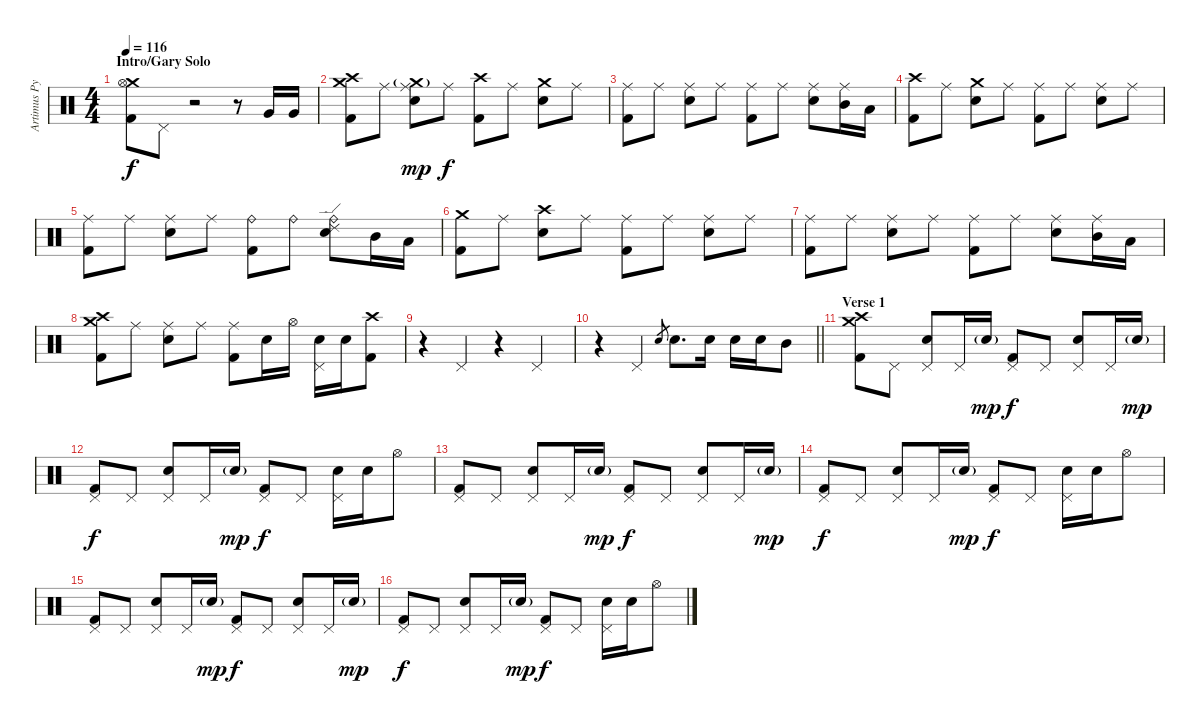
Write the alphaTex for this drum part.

\track ("Artimus Pyle - Drums and Percussion" "Artimus Py") {instrument percussion}
\staff {score}
\articulation defaults
\ts (4 4)
\section ("" "Intro/Gary Solo")
\tempo 116
\clef neutral
\ks c
("Crash medium (hit)" "Hi-Hat (open)" "Kick (hit) 2").8{dy f} "Pedal Hi-Hat (hit)".8 r.2 r.8 "Very Low Tom (hit)".16 "Very Low Tom (hit)".16 |
("Crash medium (hit)" "Crash high (hit)" "Kick (hit) 2").8 "Ride (middle)".8 ("Ride (middle)" "Crash medium (hit)"{g} "Snare (hit) 2").8{dy mp} "Ride (middle)".8{dy f} ("Crash high (hit)" "Kick (hit) 2").8 "Ride (middle)".8 ("Crash medium (hit)" "Snare (hit) 2").8 "Ride (middle)".8 |
("Ride (middle)" "Kick (hit) 2").8 "Ride (middle)".8 ("Ride (middle)" "Snare (hit) 2").8 "Ride (middle)".8 ("Ride (middle)" "Kick (hit) 2").8 "Ride (middle)".8 ("Ride (middle)" "Snare (hit) 2").8 ("Ride (middle)" "Mid Tom (hit)").16 "Low Floor Tom (hit)".16 |
("Crash high (hit)" "Kick (hit) 2").8 "Ride (middle)".8 ("Crash medium (hit)" "Snare (hit) 2").8 "Ride (middle)".8 ("Ride (middle)" "Kick (hit) 2").8 "Ride (middle)".8 ("Ride (middle)" "Snare (hit) 2").8 "Ride (middle)".8 |
("Ride (middle)" "Kick (hit) 2").8 "Ride (middle)".8 ("Ride (middle)" "Snare (hit) 2").8 "Ride (middle)".8 ("Ride (bell)" "Kick (hit) 2").8 "Ride (bell)".8 ("Ride (bell)" "Ride (edge) 2" "Snare (hit) 2").8 "Mid Tom (hit)".16 "Low Floor Tom (hit)".16 |
("Crash medium (hit)" "Kick (hit) 2").8 "Ride (middle)".8 ("Crash high (hit)" "Snare (hit) 2").8 "Ride (middle)".8 ("Ride (middle)" "Kick (hit) 2").8 "Ride (middle)".8 ("Ride (middle)" "Snare (hit) 2").8 "Ride (middle)".8 |
("Ride (middle)" "Kick (hit) 2").8 "Ride (middle)".8 ("Ride (middle)" "Snare (hit) 2").8 "Ride (middle)".8 ("Ride (middle)" "Kick (hit) 2").8 "Ride (middle)".8 ("Ride (middle)" "Snare (hit) 2").8 ("Ride (middle)" "Mid Tom (hit)").16 "Low Floor Tom (hit)".16 |
("Crash medium (hit)" "Crash high (hit)" "Kick (hit) 2").8 "Ride (middle)".8 ("Ride (middle)" "Snare (hit) 2").8 "Ride (middle)".8 ("Ride (middle)" "Kick (hit) 2").8 "Snare (hit) 2".16 "Hi-Hat (open)".16 ("Pedal Hi-Hat (hit)" "Snare (hit) 2").16 "Snare (hit) 2".16 ("Crash high (hit)" "Kick (hit) 2").8 |
r.4 "Pedal Hi-Hat (hit)".4 r.4 "Pedal Hi-Hat (hit)".4 |
\barLineRight lightlight
r.4 "Pedal Hi-Hat (hit)".4 "Snare (hit) 2".8{gr} "Snare (hit) 2".8{d} "Snare (hit) 2".16 "Snare (hit) 2".16 "Snare (hit) 2".16 "Mid Tom (hit)".8 |
\section ("" "Verse 1")
("Crash medium (hit)" "Crash high (hit)" "Kick (hit) 2").8 "Pedal Hi-Hat (hit)".8 ("Snare (hit) 2" "Pedal Hi-Hat (hit)").8 "Pedal Hi-Hat (hit)".16 "Snare (hit) 2"{g}.16{dy mp} ("Pedal Hi-Hat (hit)" "Kick (hit) 2").8{dy f} "Pedal Hi-Hat (hit)".8 ("Snare (hit) 2" "Pedal Hi-Hat (hit)").8 "Pedal Hi-Hat (hit)".16 "Snare (hit) 2"{g}.16{dy mp} |
("Pedal Hi-Hat (hit)" "Kick (hit) 2").8{dy f} "Pedal Hi-Hat (hit)".8 ("Snare (hit) 2" "Pedal Hi-Hat (hit)").8 "Pedal Hi-Hat (hit)".16 "Snare (hit) 2"{g}.16{dy mp} ("Pedal Hi-Hat (hit)" "Kick (hit) 2").8{dy f} "Pedal Hi-Hat (hit)".8 ("Snare (hit) 2" "Pedal Hi-Hat (hit)").16 "Snare (hit) 2".16 "Hi-Hat (open)".8 |
("Pedal Hi-Hat (hit)" "Kick (hit) 2").8 "Pedal Hi-Hat (hit)".8 ("Snare (hit) 2" "Pedal Hi-Hat (hit)").8 "Pedal Hi-Hat (hit)".16 "Snare (hit) 2"{g}.16{dy mp} ("Pedal Hi-Hat (hit)" "Kick (hit) 2").8{dy f} "Pedal Hi-Hat (hit)".8 ("Snare (hit) 2" "Pedal Hi-Hat (hit)").8 "Pedal Hi-Hat (hit)".16 "Snare (hit) 2"{g}.16{dy mp} |
("Pedal Hi-Hat (hit)" "Kick (hit) 2").8{dy f} "Pedal Hi-Hat (hit)".8 ("Snare (hit) 2" "Pedal Hi-Hat (hit)").8 "Pedal Hi-Hat (hit)".16 "Snare (hit) 2"{g}.16{dy mp} ("Pedal Hi-Hat (hit)" "Kick (hit) 2").8{dy f} "Pedal Hi-Hat (hit)".8 ("Snare (hit) 2" "Pedal Hi-Hat (hit)").16 "Snare (hit) 2".16 "Hi-Hat (open)".8 |
("Pedal Hi-Hat (hit)" "Kick (hit) 2").8 "Pedal Hi-Hat (hit)".8 ("Snare (hit) 2" "Pedal Hi-Hat (hit)").8 "Pedal Hi-Hat (hit)".16 "Snare (hit) 2"{g}.16{dy mp} ("Pedal Hi-Hat (hit)" "Kick (hit) 2").8{dy f} "Pedal Hi-Hat (hit)".8 ("Snare (hit) 2" "Pedal Hi-Hat (hit)").8 "Pedal Hi-Hat (hit)".16 "Snare (hit) 2"{g}.16{dy mp} |
("Pedal Hi-Hat (hit)" "Kick (hit) 2").8{dy f} "Pedal Hi-Hat (hit)".8 ("Snare (hit) 2" "Pedal Hi-Hat (hit)").8 "Pedal Hi-Hat (hit)".16 "Snare (hit) 2"{g}.16{dy mp} ("Pedal Hi-Hat (hit)" "Kick (hit) 2").8{dy f} "Pedal Hi-Hat (hit)".8 ("Snare (hit) 2" "Pedal Hi-Hat (hit)").16 "Snare (hit) 2".16 "Hi-Hat (open)".8
